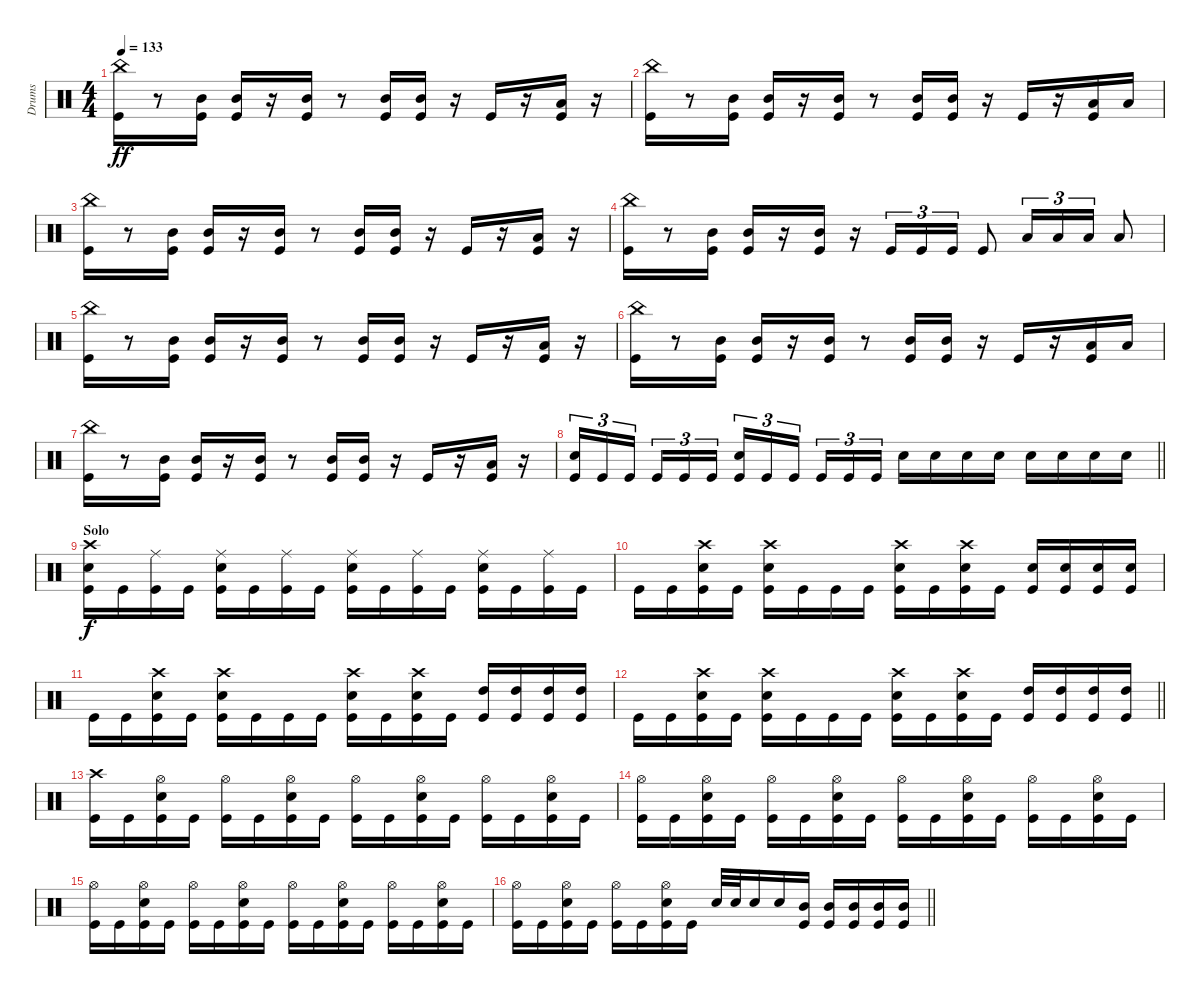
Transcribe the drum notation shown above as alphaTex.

\track ("Drums" "Drums") {instrument percussion}
\staff {score}
\articulation defaults
\ts (4 4)
\tempo 133
\clef neutral
\ks c
("China (hit)" "Kick (hit)").16{dy ff} r.8 ("Mid Tom (hit)" "Kick (hit)").16 ("Mid Tom (hit)" "Kick (hit)").16 r.16 ("Mid Tom (hit)" "Kick (hit)").16 r.8 ("Mid Tom (hit)" "Kick (hit)").16 ("Mid Tom (hit)" "Kick (hit)").16 r.16 "Kick (hit)".16 r.16 ("Low Tom (hit)" "Kick (hit)").16 r.16 |
("China (hit)" "Kick (hit)").16 r.8 ("Mid Tom (hit)" "Kick (hit)").16 ("Mid Tom (hit)" "Kick (hit)").16 r.16 ("Mid Tom (hit)" "Kick (hit)").16 r.8 ("Mid Tom (hit)" "Kick (hit)").16 ("Mid Tom (hit)" "Kick (hit)").16 r.16 "Kick (hit)".16 r.16 ("Low Tom (hit)" "Kick (hit)").16 "Low Tom (hit)".16 |
("China (hit)" "Kick (hit)").16 r.8 ("Mid Tom (hit)" "Kick (hit)").16 ("Mid Tom (hit)" "Kick (hit)").16 r.16 ("Mid Tom (hit)" "Kick (hit)").16 r.8 ("Mid Tom (hit)" "Kick (hit)").16 ("Mid Tom (hit)" "Kick (hit)").16 r.16 "Kick (hit)".16 r.16 ("Low Tom (hit)" "Kick (hit)").16 r.16 |
("China (hit)" "Kick (hit)").16 r.8 ("Mid Tom (hit)" "Kick (hit)").16 ("Mid Tom (hit)" "Kick (hit)").16 r.16 ("Mid Tom (hit)" "Kick (hit)").16 r.16 "Kick (hit)".16{tu (3 2)} "Kick (hit)".16{tu (3 2)} "Kick (hit)".16{tu (3 2)} "Kick (hit)".8 "Low Tom (hit)".16{tu (3 2)} "Low Tom (hit)".16{tu (3 2)} "Low Tom (hit)".16{tu (3 2)} "Low Tom (hit)".8 |
("China (hit)" "Kick (hit)").16 r.8 ("Mid Tom (hit)" "Kick (hit)").16 ("Mid Tom (hit)" "Kick (hit)").16 r.16 ("Mid Tom (hit)" "Kick (hit)").16 r.8 ("Mid Tom (hit)" "Kick (hit)").16 ("Mid Tom (hit)" "Kick (hit)").16 r.16 "Kick (hit)".16 r.16 ("Low Tom (hit)" "Kick (hit)").16 r.16 |
("China (hit)" "Kick (hit)").16 r.8 ("Mid Tom (hit)" "Kick (hit)").16 ("Mid Tom (hit)" "Kick (hit)").16 r.16 ("Mid Tom (hit)" "Kick (hit)").16 r.8 ("Mid Tom (hit)" "Kick (hit)").16 ("Mid Tom (hit)" "Kick (hit)").16 r.16 "Kick (hit)".16 r.16 ("Low Tom (hit)" "Kick (hit)").16 "Low Tom (hit)".16 |
("China (hit)" "Kick (hit)").16 r.8 ("Mid Tom (hit)" "Kick (hit)").16 ("Mid Tom (hit)" "Kick (hit)").16 r.16 ("Mid Tom (hit)" "Kick (hit)").16 r.8 ("Mid Tom (hit)" "Kick (hit)").16 ("Mid Tom (hit)" "Kick (hit)").16 r.16 "Kick (hit)".16 r.16 ("Low Tom (hit)" "Kick (hit)").16 r.16 |
\barLineRight lightlight
("Snare (hit) 2" "Kick (hit)").16{tu (3 2)} "Kick (hit)".16{tu (3 2)} "Kick (hit)".16{tu (3 2) beam splitsecondary} "Kick (hit)".16{tu (3 2)} "Kick (hit)".16{tu (3 2)} "Kick (hit)".16{tu (3 2)} ("Snare (hit) 2" "Kick (hit)").16{tu (3 2)} "Kick (hit)".16{tu (3 2)} "Kick (hit)".16{tu (3 2) beam splitsecondary} "Kick (hit)".16{tu (3 2)} "Kick (hit)".16{tu (3 2)} "Kick (hit)".16{tu (3 2)} "Snare (hit) 2".16 "Snare (hit) 2".16 "Snare (hit) 2".16 "Snare (hit) 2".16 "Snare (hit) 2".16 "Snare (hit) 2".16 "Snare (hit) 2".16 "Snare (hit) 2".16 |
\section ("" "Solo")
("Crash high (hit)" "Snare (hit) 2" "Kick (hit)").16{dy f} "Kick (hit)".16 ("Ride (middle)" "Kick (hit)").16 "Kick (hit)".16 ("Ride (middle)" "Snare (hit) 2" "Kick (hit)").16 "Kick (hit)".16 ("Ride (middle)" "Kick (hit)").16 "Kick (hit)".16 ("Ride (middle)" "Snare (hit) 2" "Kick (hit)").16 "Kick (hit)".16 ("Ride (middle)" "Kick (hit)").16 "Kick (hit)".16 ("Ride (middle)" "Snare (hit) 2" "Kick (hit)").16 "Kick (hit)".16 ("Ride (middle)" "Kick (hit)").16 "Kick (hit)".16 |
"Kick (hit)".16 "Kick (hit)".16 ("Crash high (hit)" "Snare (hit) 2" "Kick (hit)").16 "Kick (hit)".16 ("Crash high (hit)" "Snare (hit) 2" "Kick (hit)").16 "Kick (hit)".16 "Kick (hit)".16 "Kick (hit)".16 ("Crash high (hit)" "Snare (hit) 2" "Kick (hit)").16 "Kick (hit)".16 ("Crash high (hit)" "Snare (hit) 2" "Kick (hit)").16 "Kick (hit)".16 ("Snare (hit) 2" "Kick (hit)").16 ("Snare (hit) 2" "Kick (hit)").16 ("Snare (hit) 2" "Kick (hit)").16 ("Snare (hit) 2" "Kick (hit)").16 |
"Kick (hit)".16 "Kick (hit)".16 ("Crash high (hit)" "Snare (hit) 2" "Kick (hit)").16 "Kick (hit)".16 ("Crash high (hit)" "Snare (hit) 2" "Kick (hit)").16 "Kick (hit)".16 "Kick (hit)".16 "Kick (hit)".16 ("Crash high (hit)" "Snare (hit) 2" "Kick (hit)").16 "Kick (hit)".16 ("Crash high (hit)" "Snare (hit) 2" "Kick (hit)").16 "Kick (hit)".16 ("High Tom (hit)" "Kick (hit)").16 ("High Tom (hit)" "Kick (hit)").16 ("High Tom (hit)" "Kick (hit)").16 ("High Tom (hit)" "Kick (hit)").16 |
\barLineRight lightlight "Kick (hit)".16 "Kick (hit)".16
("Crash high (hit)" "Snare (hit) 2" "Kick (hit)").16 "Kick (hit)".16 ("Crash high (hit)" "Snare (hit) 2" "Kick (hit)").16 "Kick (hit)".16 "Kick (hit)".16 "Kick (hit)".16 ("Crash high (hit)" "Snare (hit) 2" "Kick (hit)").16 "Kick (hit)".16 ("Crash high (hit)" "Snare (hit) 2" "Kick (hit)").16 "Kick (hit)".16 ("High Tom (hit)" "Kick (hit)").16 ("High Tom (hit)" "Kick (hit)").16 ("High Tom (hit)" "Kick (hit)").16 ("High Tom (hit)" "Kick (hit)").16 |
\section ("" "")
("Crash high (hit)" "Kick (hit)").16 "Kick (hit)".16 ("Hi-Hat (open)" "Snare (hit) 2" "Kick (hit)").16 "Kick (hit)".16 ("Hi-Hat (open)" "Kick (hit)").16 "Kick (hit)".16 ("Hi-Hat (open)" "Snare (hit) 2" "Kick (hit)").16 "Kick (hit)".16 ("Hi-Hat (open)" "Kick (hit)").16 "Kick (hit)".16 ("Hi-Hat (open)" "Snare (hit) 2" "Kick (hit)").16 "Kick (hit)".16 ("Hi-Hat (open)" "Kick (hit)").16 "Kick (hit)".16 ("Hi-Hat (open)" "Snare (hit) 2" "Kick (hit)").16 "Kick (hit)".16 |
("Hi-Hat (open)" "Kick (hit)").16 "Kick (hit)".16 ("Hi-Hat (open)" "Snare (hit) 2" "Kick (hit)").16 "Kick (hit)".16 ("Hi-Hat (open)" "Kick (hit)").16 "Kick (hit)".16 ("Hi-Hat (open)" "Snare (hit) 2" "Kick (hit)").16 "Kick (hit)".16 ("Hi-Hat (open)" "Kick (hit)").16 "Kick (hit)".16 ("Hi-Hat (open)" "Snare (hit) 2" "Kick (hit)").16 "Kick (hit)".16 ("Hi-Hat (open)" "Kick (hit)").16 "Kick (hit)".16 ("Hi-Hat (open)" "Snare (hit) 2" "Kick (hit)").16 "Kick (hit)".16 |
("Hi-Hat (open)" "Kick (hit)").16 "Kick (hit)".16 ("Hi-Hat (open)" "Snare (hit) 2" "Kick (hit)").16 "Kick (hit)".16 ("Hi-Hat (open)" "Kick (hit)").16 "Kick (hit)".16 ("Hi-Hat (open)" "Snare (hit) 2" "Kick (hit)").16 "Kick (hit)".16 ("Hi-Hat (open)" "Kick (hit)").16 "Kick (hit)".16 ("Hi-Hat (open)" "Snare (hit) 2" "Kick (hit)").16 "Kick (hit)".16 ("Hi-Hat (open)" "Kick (hit)").16 "Kick (hit)".16 ("Hi-Hat (open)" "Snare (hit) 2" "Kick (hit)").16 "Kick (hit)".16 |
\barLineRight lightlight
("Hi-Hat (open)" "Kick (hit)").16 "Kick (hit)".16 ("Hi-Hat (open)" "Snare (hit) 2" "Kick (hit)").16 "Kick (hit)".16 ("Hi-Hat (open)" "Kick (hit)").16 "Kick (hit)".16 ("Hi-Hat (open)" "Snare (hit) 2" "Kick (hit)").16 "Kick (hit)".16 "Snare (hit) 2".32 "Snare (hit) 2".32 "Snare (hit) 2".16 "Snare (hit) 2".16 ("Mid Tom (hit)" "Kick (hit)").16 ("Mid Tom (hit)" "Kick (hit)").16 ("Mid Tom (hit)" "Kick (hit)").16 ("Mid Tom (hit)" "Kick (hit)").16 ("Mid Tom (hit)" "Kick (hit)").16
